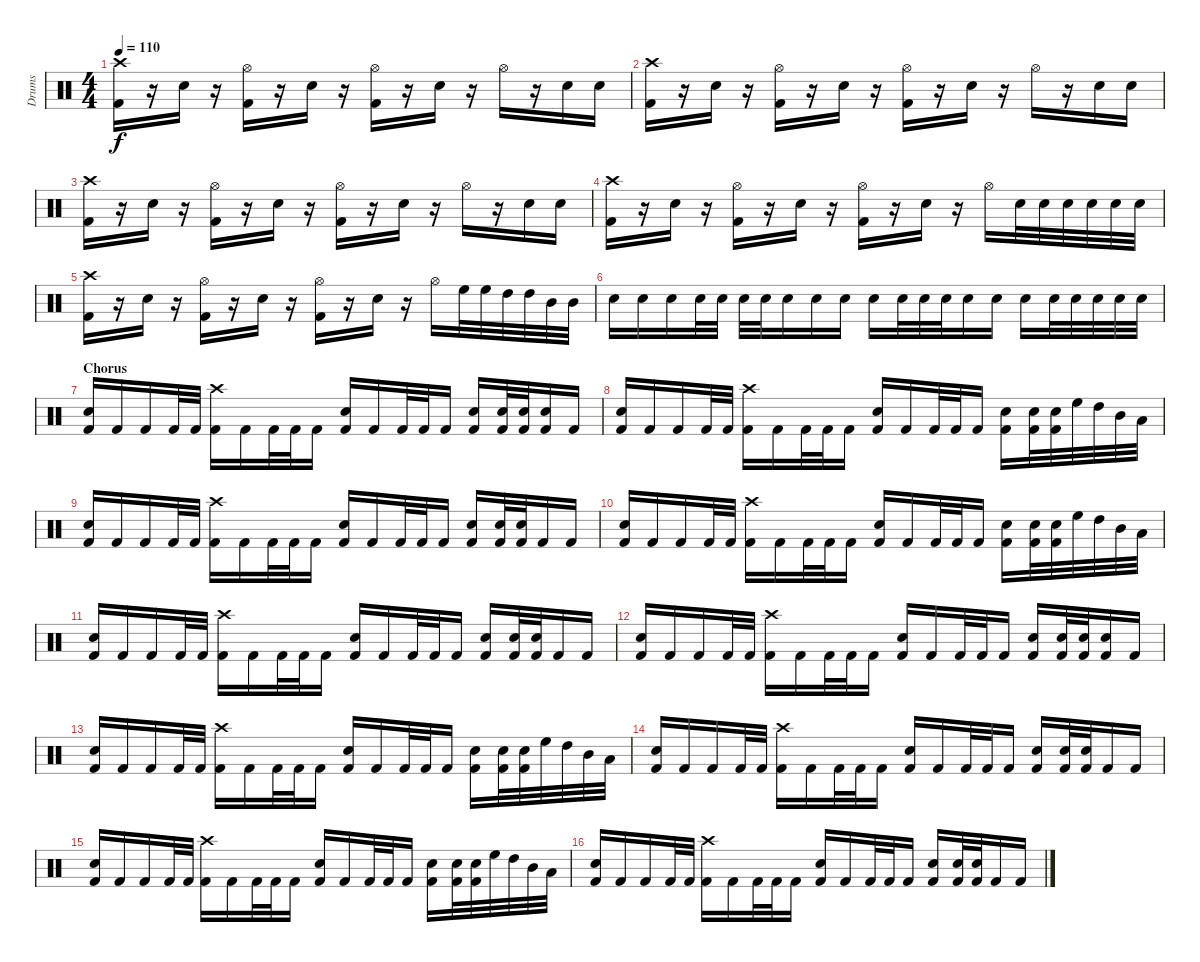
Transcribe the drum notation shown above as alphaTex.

\track ("Drums" "Drums") {instrument percussion}
\staff {score}
\articulation defaults
\ts (4 4)
\tempo 110
\clef neutral
\ks c
("Crash high (hit)" "Kick (hit) 2").16{dy f} r.16 "Snare (hit) 2".16 r.16 ("Hi-Hat (open)" "Kick (hit) 2").16 r.16 "Snare (hit) 2".16 r.16 ("Hi-Hat (open)" "Kick (hit) 2").16 r.16 "Snare (hit) 2".16 r.16 "Hi-Hat (open)".16 r.16 "Snare (hit) 2".16 "Snare (hit) 2".16 |
("Crash high (hit)" "Kick (hit) 2").16 r.16 "Snare (hit) 2".16 r.16 ("Hi-Hat (open)" "Kick (hit) 2").16 r.16 "Snare (hit) 2".16 r.16 ("Hi-Hat (open)" "Kick (hit) 2").16 r.16 "Snare (hit) 2".16 r.16 "Hi-Hat (open)".16 r.16 "Snare (hit) 2".16 "Snare (hit) 2".16 |
("Crash high (hit)" "Kick (hit) 2").16 r.16 "Snare (hit) 2".16 r.16 ("Hi-Hat (open)" "Kick (hit) 2").16 r.16 "Snare (hit) 2".16 r.16 ("Hi-Hat (open)" "Kick (hit) 2").16 r.16 "Snare (hit) 2".16 r.16 "Hi-Hat (open)".16 r.16 "Snare (hit) 2".16 "Snare (hit) 2".16 |
("Crash high (hit)" "Kick (hit) 2").16 r.16 "Snare (hit) 2".16 r.16 ("Hi-Hat (open)" "Kick (hit) 2").16 r.16 "Snare (hit) 2".16 r.16 ("Hi-Hat (open)" "Kick (hit) 2").16 r.16 "Snare (hit) 2".16 r.16 "Hi-Hat (open)".16 "Snare (hit) 2".32 "Snare (hit) 2".32 "Snare (hit) 2".32 "Snare (hit) 2".32 "Snare (hit) 2".32 "Snare (hit) 2".32 |
("Crash high (hit)" "Kick (hit) 2").16 r.16 "Snare (hit) 2".16 r.16 ("Hi-Hat (open)" "Kick (hit) 2").16 r.16 "Snare (hit) 2".16 r.16 ("Hi-Hat (open)" "Kick (hit) 2").16 r.16 "Snare (hit) 2".16 r.16 "Hi-Hat (open)".16 "High Floor Tom (hit)".32 "High Floor Tom (hit)".32 "High Tom (hit)".32 "High Tom (hit)".32 "Mid Tom (hit)".32 "Mid Tom (hit)".32 |
"Snare (hit) 2".16 "Snare (hit) 2".16 "Snare (hit) 2".16 "Snare (hit) 2".32 "Snare (hit) 2".32 "Snare (hit) 2".32 "Snare (hit) 2".32 "Snare (hit) 2".16 "Snare (hit) 2".16 "Snare (hit) 2".16 "Snare (hit) 2".16 "Snare (hit) 2".32 "Snare (hit) 2".32 "Snare (hit) 2".32 "Snare (hit) 2".16 "Snare (hit) 2".16 "Snare (hit) 2".16 "Snare (hit) 2".32 "Snare (hit) 2".32 "Snare (hit) 2".32 "Snare (hit) 2".32 "Snare (hit) 2".32 |
\section ("" "Chorus ")
("Snare (hit) 2" "Kick (hit) 2").16 "Kick (hit) 2".16 "Kick (hit) 2".16 "Kick (hit) 2".32 "Kick (hit) 2".32 ("Crash high (hit)" "Kick (hit) 2").16 "Kick (hit) 2".16 "Kick (hit) 2".32 "Kick (hit) 2".32 "Kick (hit) 2".16 ("Snare (hit) 2" "Kick (hit) 2").16 "Kick (hit) 2".16 "Kick (hit) 2".32 "Kick (hit) 2".32 "Kick (hit) 2".16 ("Snare (hit) 2" "Kick (hit) 2").16 ("Snare (hit) 2" "Kick (hit) 2").32 ("Snare (hit) 2" "Kick (hit) 2").32 ("Snare (hit) 2" "Kick (hit) 2").16 "Kick (hit) 2".16 |
("Snare (hit) 2" "Kick (hit) 2").16 "Kick (hit) 2".16 "Kick (hit) 2".16 "Kick (hit) 2".32 "Kick (hit) 2".32 ("Crash high (hit)" "Kick (hit) 2").16 "Kick (hit) 2".16 "Kick (hit) 2".32 "Kick (hit) 2".32 "Kick (hit) 2".16 ("Snare (hit) 2" "Kick (hit) 2").16 "Kick (hit) 2".16 "Kick (hit) 2".32 "Kick (hit) 2".32 "Kick (hit) 2".16 ("Snare (hit) 2" "Kick (hit) 2").16 ("Snare (hit) 2" "Kick (hit) 2").32 ("Snare (hit) 2" "Kick (hit) 2").32 "High Floor Tom (hit)".32 "High Tom (hit)".32 "Mid Tom (hit)".32 "Low Tom (hit)".32 |
("Snare (hit) 2" "Kick (hit) 2").16 "Kick (hit) 2".16 "Kick (hit) 2".16 "Kick (hit) 2".32 "Kick (hit) 2".32 ("Crash high (hit)" "Kick (hit) 2").16 "Kick (hit) 2".16 "Kick (hit) 2".32 "Kick (hit) 2".32 "Kick (hit) 2".16 ("Snare (hit) 2" "Kick (hit) 2").16 "Kick (hit) 2".16 "Kick (hit) 2".32 "Kick (hit) 2".32 "Kick (hit) 2".16 ("Snare (hit) 2" "Kick (hit) 2").16 ("Snare (hit) 2" "Kick (hit) 2").32 ("Snare (hit) 2" "Kick (hit) 2").32 "Kick (hit) 2".16 "Kick (hit) 2".16 |
("Snare (hit) 2" "Kick (hit) 2").16 "Kick (hit) 2".16 "Kick (hit) 2".16 "Kick (hit) 2".32 "Kick (hit) 2".32 ("Crash high (hit)" "Kick (hit) 2").16 "Kick (hit) 2".16 "Kick (hit) 2".32 "Kick (hit) 2".32 "Kick (hit) 2".16 ("Snare (hit) 2" "Kick (hit) 2").16 "Kick (hit) 2".16 "Kick (hit) 2".32 "Kick (hit) 2".32 "Kick (hit) 2".16 ("Snare (hit) 2" "Kick (hit) 2").16 ("Snare (hit) 2" "Kick (hit) 2").32 ("Snare (hit) 2" "Kick (hit) 2").32 "High Floor Tom (hit)".32 "High Tom (hit)".32 "Mid Tom (hit)".32 "Low Tom (hit)".32 |
("Snare (hit) 2" "Kick (hit) 2").16 "Kick (hit) 2".16 "Kick (hit) 2".16 "Kick (hit) 2".32 "Kick (hit) 2".32 ("Crash high (hit)" "Kick (hit) 2").16 "Kick (hit) 2".16 "Kick (hit) 2".32 "Kick (hit) 2".32 "Kick (hit) 2".16 ("Snare (hit) 2" "Kick (hit) 2").16 "Kick (hit) 2".16 "Kick (hit) 2".32 "Kick (hit) 2".32 "Kick (hit) 2".16 ("Snare (hit) 2" "Kick (hit) 2").16 ("Snare (hit) 2" "Kick (hit) 2").32 ("Snare (hit) 2" "Kick (hit) 2").32 "Kick (hit) 2".16 "Kick (hit) 2".16 |
("Snare (hit) 2" "Kick (hit) 2").16 "Kick (hit) 2".16 "Kick (hit) 2".16 "Kick (hit) 2".32 "Kick (hit) 2".32 ("Crash high (hit)" "Kick (hit) 2").16 "Kick (hit) 2".16 "Kick (hit) 2".32 "Kick (hit) 2".32 "Kick (hit) 2".16 ("Snare (hit) 2" "Kick (hit) 2").16 "Kick (hit) 2".16 "Kick (hit) 2".32 "Kick (hit) 2".32 "Kick (hit) 2".16 ("Snare (hit) 2" "Kick (hit) 2").16 ("Snare (hit) 2" "Kick (hit) 2").32 ("Snare (hit) 2" "Kick (hit) 2").32 ("Snare (hit) 2" "Kick (hit) 2").16 "Kick (hit) 2".16 |
("Snare (hit) 2" "Kick (hit) 2").16 "Kick (hit) 2".16 "Kick (hit) 2".16 "Kick (hit) 2".32 "Kick (hit) 2".32 ("Crash high (hit)" "Kick (hit) 2").16 "Kick (hit) 2".16 "Kick (hit) 2".32 "Kick (hit) 2".32 "Kick (hit) 2".16 ("Snare (hit) 2" "Kick (hit) 2").16 "Kick (hit) 2".16 "Kick (hit) 2".32 "Kick (hit) 2".32 "Kick (hit) 2".16 ("Snare (hit) 2" "Kick (hit) 2").16 ("Snare (hit) 2" "Kick (hit) 2").32 ("Snare (hit) 2" "Kick (hit) 2").32 "High Floor Tom (hit)".32 "High Tom (hit)".32 "Mid Tom (hit)".32 "Low Tom (hit)".32 |
("Snare (hit) 2" "Kick (hit) 2").16 "Kick (hit) 2".16 "Kick (hit) 2".16 "Kick (hit) 2".32 "Kick (hit) 2".32 ("Crash high (hit)" "Kick (hit) 2").16 "Kick (hit) 2".16 "Kick (hit) 2".32 "Kick (hit) 2".32 "Kick (hit) 2".16 ("Snare (hit) 2" "Kick (hit) 2").16 "Kick (hit) 2".16 "Kick (hit) 2".32 "Kick (hit) 2".32 "Kick (hit) 2".16 ("Snare (hit) 2" "Kick (hit) 2").16 ("Snare (hit) 2" "Kick (hit) 2").32 ("Snare (hit) 2" "Kick (hit) 2").32 "Kick (hit) 2".16 "Kick (hit) 2".16 |
("Snare (hit) 2" "Kick (hit) 2").16 "Kick (hit) 2".16 "Kick (hit) 2".16 "Kick (hit) 2".32 "Kick (hit) 2".32 ("Crash high (hit)" "Kick (hit) 2").16 "Kick (hit) 2".16 "Kick (hit) 2".32 "Kick (hit) 2".32 "Kick (hit) 2".16 ("Snare (hit) 2" "Kick (hit) 2").16 "Kick (hit) 2".16 "Kick (hit) 2".32 "Kick (hit) 2".32 "Kick (hit) 2".16 ("Snare (hit) 2" "Kick (hit) 2").16 ("Snare (hit) 2" "Kick (hit) 2").32 ("Snare (hit) 2" "Kick (hit) 2").32 "High Floor Tom (hit)".32 "High Tom (hit)".32 "Mid Tom (hit)".32 "Low Tom (hit)".32 |
("Snare (hit) 2" "Kick (hit) 2").16 "Kick (hit) 2".16 "Kick (hit) 2".16 "Kick (hit) 2".32 "Kick (hit) 2".32 ("Crash high (hit)" "Kick (hit) 2").16 "Kick (hit) 2".16 "Kick (hit) 2".32 "Kick (hit) 2".32 "Kick (hit) 2".16 ("Snare (hit) 2" "Kick (hit) 2").16 "Kick (hit) 2".16 "Kick (hit) 2".32 "Kick (hit) 2".32 "Kick (hit) 2".16 ("Snare (hit) 2" "Kick (hit) 2").16 ("Snare (hit) 2" "Kick (hit) 2").32 ("Snare (hit) 2" "Kick (hit) 2").32 "Kick (hit) 2".16 "Kick (hit) 2".16
